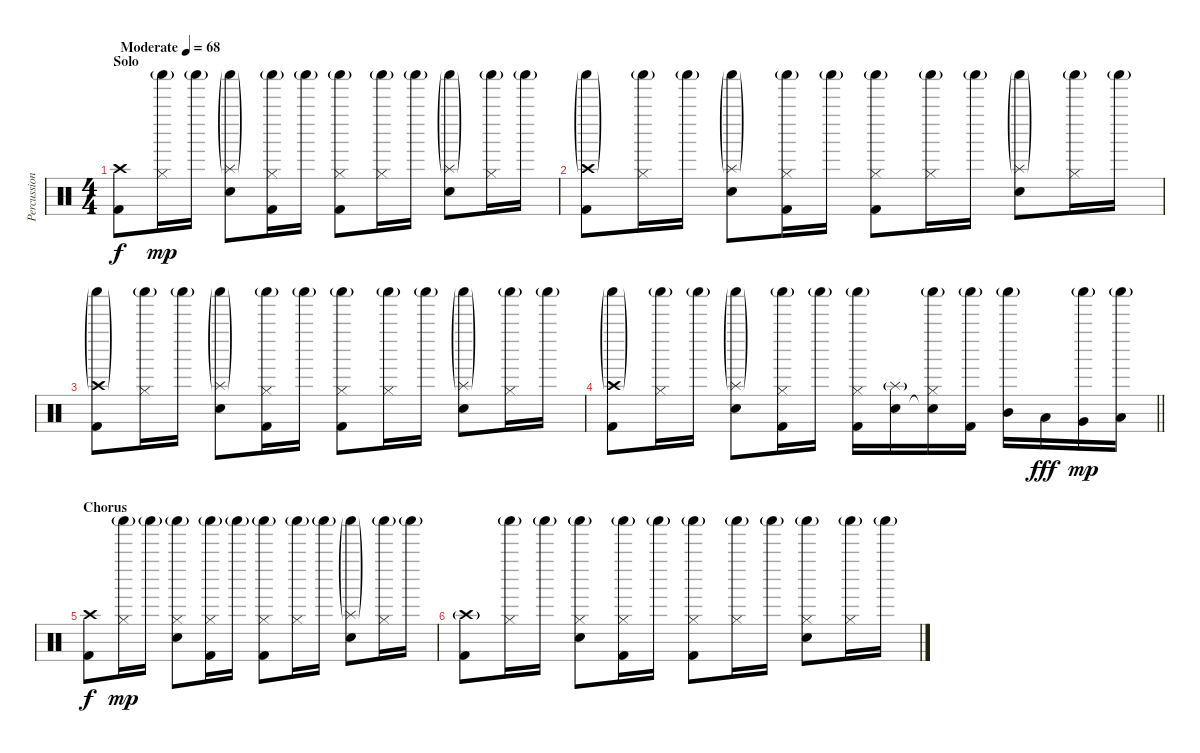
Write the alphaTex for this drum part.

\track ("Percussion" "Percussion") {instrument percussion}
\staff {score}
\articulation defaults
\ts (4 4)
\section ("" "Solo")
\tempo (68 "Moderate")
\clef neutral
\ks c
("Crash high (hit)" "Kick (hit) 2").8{dy f} ("Hi-Hat (closed)" "Shaker (hit)"{g}).16{dy mp} "Shaker (hit)"{g}.16 ("Splash (hit)"{g} "Snare (hit) 2" "Shaker (hit)"{g}).8 ("Hi-Hat (closed)" "Kick (hit) 2" "Shaker (hit)"{g}).16 "Shaker (hit)"{g}.16 ("Hi-Hat (closed)" "Kick (hit) 2" "Shaker (hit)"{g}).8 ("Hi-Hat (closed)" "Shaker (hit)"{g}).16 "Shaker (hit)"{g}.16 ("Splash (hit)"{g} "Snare (hit) 2" "Shaker (hit)"{g}).8 ("Hi-Hat (closed)" "Shaker (hit)"{g}).16 "Shaker (hit)"{g}.16 |
("Crash high (hit)"{g} "Kick (hit) 2" "Shaker (hit)"{g}).8 ("Hi-Hat (closed)" "Shaker (hit)"{g}).16 "Shaker (hit)"{g}.16 ("Splash (hit)"{g} "Snare (hit) 2" "Shaker (hit)"{g}).8 ("Hi-Hat (closed)" "Kick (hit) 2" "Shaker (hit)"{g}).16 "Shaker (hit)"{g}.16 ("Hi-Hat (closed)" "Kick (hit) 2" "Shaker (hit)"{g}).8 ("Hi-Hat (closed)" "Shaker (hit)"{g}).16 "Shaker (hit)"{g}.16 ("Splash (hit)"{g} "Snare (hit) 2" "Shaker (hit)"{g}).8 ("Hi-Hat (closed)" "Shaker (hit)"{g}).16 "Shaker (hit)"{g}.16 |
("Crash high (hit)"{g} "Kick (hit) 2" "Shaker (hit)"{g}).8 ("Hi-Hat (closed)" "Shaker (hit)"{g}).16 "Shaker (hit)"{g}.16 ("Splash (hit)"{g} "Snare (hit) 2" "Shaker (hit)"{g}).8 ("Hi-Hat (closed)" "Kick (hit) 2" "Shaker (hit)"{g}).16 "Shaker (hit)"{g}.16 ("Hi-Hat (closed)" "Kick (hit) 2" "Shaker (hit)"{g}).8 ("Hi-Hat (closed)" "Shaker (hit)"{g}).16 "Shaker (hit)"{g}.16 ("Splash (hit)"{g} "Snare (hit) 2" "Shaker (hit)"{g}).8 ("Hi-Hat (closed)" "Shaker (hit)"{g}).16 "Shaker (hit)"{g}.16 |
\barLineRight lightlight
("Crash high (hit)"{g} "Kick (hit) 2" "Shaker (hit)"{g}).8 ("Hi-Hat (closed)" "Shaker (hit)"{g}).16 "Shaker (hit)"{g}.16 ("Splash (hit)"{g} "Snare (hit) 2" "Shaker (hit)"{g}).8 ("Hi-Hat (closed)" "Kick (hit) 2" "Shaker (hit)"{g}).16 "Shaker (hit)"{g}.16 ("Hi-Hat (closed)" "Kick (hit) 2" "Shaker (hit)"{g}).16 ("Splash (hit)"{g} "Snare (hit) 2").16 ("Hi-Hat (closed)" "Snare (hit)"{t} "Shaker (hit)"{g}).16 ("Kick (hit) 2" "Shaker (hit)"{g}).16 ("Mid Tom (hit)" "Shaker (hit)"{g}).16 "Low Tom (hit)".16{dy fff} ("Very Low Tom (hit)" "Shaker (hit)"{g}).16{dy mp} ("Low Floor Tom (hit)" "Shaker (hit)"{g}).16 |
\section ("" "Chorus")
("Crash high (hit)" "Kick (hit) 2").8{dy f} ("Hi-Hat (closed)" "Shaker (hit)"{g}).16{dy mp} "Shaker (hit)"{g}.16 ("Hi-Hat (closed)" "Snare (hit) 2" "Shaker (hit)"{g}).8 ("Hi-Hat (closed)" "Kick (hit) 2" "Shaker (hit)"{g}).16 "Shaker (hit)"{g}.16 ("Hi-Hat (closed)" "Kick (hit) 2" "Shaker (hit)"{g}).8 ("Hi-Hat (closed)" "Shaker (hit)"{g}).16 "Shaker (hit)"{g}.16 ("Splash (hit)"{g} "Snare (hit) 2" "Shaker (hit)"{g}).8 ("Hi-Hat (closed)" "Shaker (hit)"{g}).16 "Shaker (hit)"{g}.16 |
("Crash high (hit)"{g} "Kick (hit) 2").8 ("Hi-Hat (closed)" "Shaker (hit)"{g}).16 "Shaker (hit)"{g}.16 ("Hi-Hat (closed)" "Snare (hit) 2" "Shaker (hit)"{g}).8 ("Hi-Hat (closed)" "Kick (hit) 2" "Shaker (hit)"{g}).16 "Shaker (hit)"{g}.16 ("Hi-Hat (closed)" "Kick (hit) 2" "Shaker (hit)"{g}).8 ("Hi-Hat (closed)" "Shaker (hit)"{g}).16 "Shaker (hit)"{g}.16 ("Hi-Hat (closed)" "Snare (hit) 2" "Shaker (hit)"{g}).8 ("Hi-Hat (closed)" "Shaker (hit)"{g}).16 "Shaker (hit)"{g}.16
